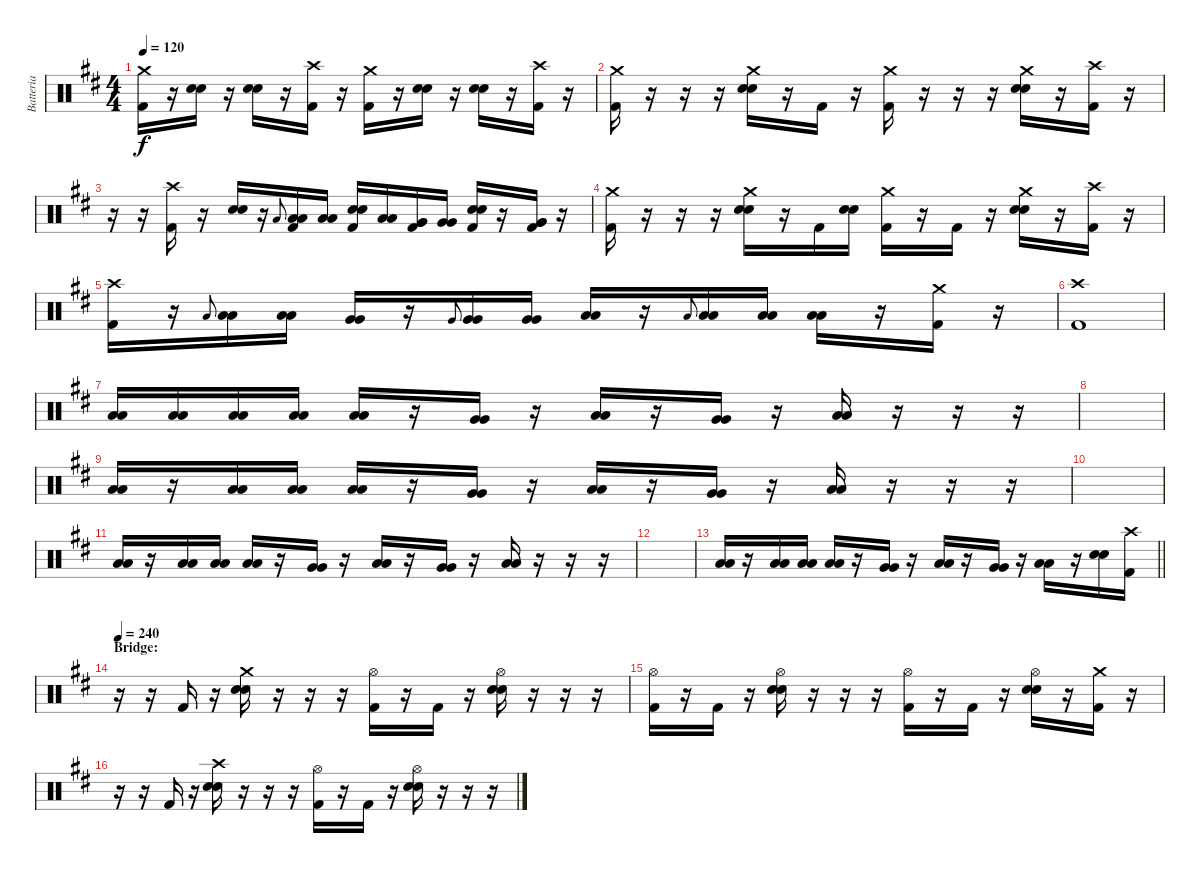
\track ("Batteria" "Batteria") {instrument percussion}
\staff {score}
\articulation defaults
\ts (4 4)
\tempo 120
\clef neutral
\ks d
("Kick (hit) 2" "Crash medium (hit)").16{dy f} r.16 ("Snare (hit) 2" "Snare (hit) 2").16 r.16 ("Snare (hit) 2" "Snare (hit) 2").16 r.16 ("Kick (hit) 2" "Crash high (hit)").16 r.16 ("Kick (hit) 2" "Crash medium (hit)").16 r.16 ("Snare (hit) 2" "Snare (hit) 2").16 r.16 ("Snare (hit) 2" "Snare (hit) 2").16 r.16 ("Kick (hit) 2" "Crash high (hit)").16 r.16 |
("Kick (hit) 2" "Crash medium (hit)").16 r.16 r.16 r.16 ("Snare (hit) 2" "Snare (hit) 2" "Crash medium (hit)").16 r.16 "Kick (hit) 2".16 r.16 ("Kick (hit) 2" "Crash medium (hit)").16 r.16 r.16 r.16 ("Snare (hit) 2" "Snare (hit) 2" "Crash medium (hit)").16 r.16 ("Kick (hit) 2" "Crash high (hit)").16 r.16 |
r.16 r.16 ("Kick (hit) 2" "Crash high (hit)").16 r.16 ("Snare (hit) 2" "Snare (hit) 2").16 r.16 "Low Tom (hit)".8{gr onbeat} ("Kick (hit) 2" "Low Tom (hit)" "Low Tom (hit)").16 ("Low Tom (hit)" "Low Tom (hit)").16 ("Kick (hit) 2" "Snare (hit) 2" "Snare (hit) 2").16 ("Low Tom (hit)" "Low Tom (hit)").16 ("Kick (hit) 2" "Very Low Tom (hit)" "Very Low Tom (hit)").16 ("Very Low Tom (hit)" "Very Low Tom (hit)").16 ("Kick (hit) 2" "Snare (hit) 2" "Snare (hit) 2").16 r.16 ("Kick (hit) 2" "Very Low Tom (hit)" "Very Low Tom (hit)").16 r.16 |
("Kick (hit) 2" "Crash medium (hit)").16 r.16 r.16 r.16 ("Snare (hit) 2" "Snare (hit) 2" "Crash medium (hit)").16 r.16 "Kick (hit) 2".16 ("Snare (hit) 2" "Snare (hit) 2").16 ("Kick (hit) 2" "Crash medium (hit)").16 r.16 "Kick (hit) 2".16 r.16 ("Snare (hit) 2" "Snare (hit) 2" "Crash medium (hit)").16 r.16 ("Kick (hit) 2" "Crash high (hit)").16 r.16 |
("Kick (hit) 2" "Crash high (hit)").16 r.16 "Low Tom (hit)".8{gr onbeat} ("Low Tom (hit)" "Low Tom (hit)").16 ("Low Tom (hit)" "Low Tom (hit)").16 ("Very Low Tom (hit)" "Very Low Tom (hit)").16 r.16 "Very Low Tom (hit)".8{gr onbeat} ("Very Low Tom (hit)" "Very Low Tom (hit)").16 ("Very Low Tom (hit)" "Very Low Tom (hit)").16 ("Low Floor Tom (hit)" "Low Floor Tom (hit)").16 r.16 "Low Floor Tom (hit)".8{gr onbeat} ("Low Floor Tom (hit)" "Low Floor Tom (hit)").16 ("Low Floor Tom (hit)" "Low Floor Tom (hit)").16 ("Low Floor Tom (hit)" "Low Floor Tom (hit)").16 r.16 ("Kick (hit) 2" "Crash medium (hit)").16 r.16 |
("Kick (hit) 2" "Crash high (hit)").1 |
("Low Tom (hit)" "Low Tom (hit)").16 ("Low Tom (hit)" "Low Tom (hit)").16 ("Low Tom (hit)" "Low Tom (hit)").16 ("Low Tom (hit)" "Low Tom (hit)").16 ("Low Tom (hit)" "Low Tom (hit)").16 r.16 ("Very Low Tom (hit)" "Very Low Tom (hit)").16 r.16 ("Low Floor Tom (hit)" "Low Floor Tom (hit)").16 r.16 ("Very Low Tom (hit)" "Very Low Tom (hit)").16 r.16 ("Low Tom (hit)" "Low Tom (hit)").16 r.16 r.16 r.16 |
|
("Low Tom (hit)" "Low Tom (hit)").16 r.16 ("Low Tom (hit)" "Low Tom (hit)").16 ("Low Tom (hit)" "Low Tom (hit)").16 ("Low Tom (hit)" "Low Tom (hit)").16 r.16 ("Very Low Tom (hit)" "Very Low Tom (hit)").16 r.16 ("Low Floor Tom (hit)" "Low Floor Tom (hit)").16 r.16 ("Very Low Tom (hit)" "Very Low Tom (hit)").16 r.16 ("Low Tom (hit)" "Low Tom (hit)").16 r.16 r.16 r.16 |
|
("Low Tom (hit)" "Low Tom (hit)").16 r.16 ("Low Tom (hit)" "Low Tom (hit)").16 ("Low Tom (hit)" "Low Tom (hit)").16 ("Low Tom (hit)" "Low Tom (hit)").16 r.16 ("Very Low Tom (hit)" "Very Low Tom (hit)").16 r.16 ("Low Floor Tom (hit)" "Low Floor Tom (hit)").16 r.16 ("Very Low Tom (hit)" "Very Low Tom (hit)").16 r.16 ("Low Tom (hit)" "Low Tom (hit)").16 r.16 r.16 r.16 |
|
\barLineRight lightlight
("Low Tom (hit)" "Low Tom (hit)").16 r.16 ("Low Tom (hit)" "Low Tom (hit)").16 ("Low Tom (hit)" "Low Tom (hit)").16 ("Low Tom (hit)" "Low Tom (hit)").16 r.16 ("Very Low Tom (hit)" "Very Low Tom (hit)").16 r.16 ("Low Floor Tom (hit)" "Low Floor Tom (hit)").16 r.16 ("Very Low Tom (hit)" "Very Low Tom (hit)").16 r.16 ("Low Tom (hit)" "Low Tom (hit)").16 r.16 ("Snare (hit) 2" "Snare (hit) 2").16 ("Kick (hit) 2" "Crash high (hit)").16 |
\section ("" "Bridge:")
\tempo 240
r.16 r.16 "Kick (hit) 2".16 r.16 ("Snare (hit) 2" "Snare (hit) 2" "Crash medium (hit)").16 r.16 r.16 r.16 ("Kick (hit) 2" "Hi-Hat (open)").16 r.16 "Kick (hit) 2".16 r.16 ("Snare (hit) 2" "Snare (hit) 2" "Hi-Hat (open)").16 r.16 r.16 r.16 |
("Kick (hit) 2" "Hi-Hat (open)").16 r.16 "Kick (hit) 2".16 r.16 ("Snare (hit) 2" "Snare (hit) 2" "Hi-Hat (open)").16 r.16 r.16 r.16 ("Kick (hit) 2" "Hi-Hat (open)").16 r.16 "Kick (hit) 2".16 r.16 ("Snare (hit) 2" "Snare (hit) 2" "Hi-Hat (open)").16 r.16 ("Kick (hit) 2" "Crash medium (hit)").16 r.16 |
r.16 r.16 "Kick (hit) 2".16 r.16 ("Snare (hit) 2" "Snare (hit) 2" "Crash high (hit)").16 r.16 r.16 r.16 ("Kick (hit) 2" "Hi-Hat (open)").16 r.16 "Kick (hit) 2".16 r.16 ("Snare (hit) 2" "Snare (hit) 2" "Hi-Hat (open)").16 r.16 r.16 r.16
